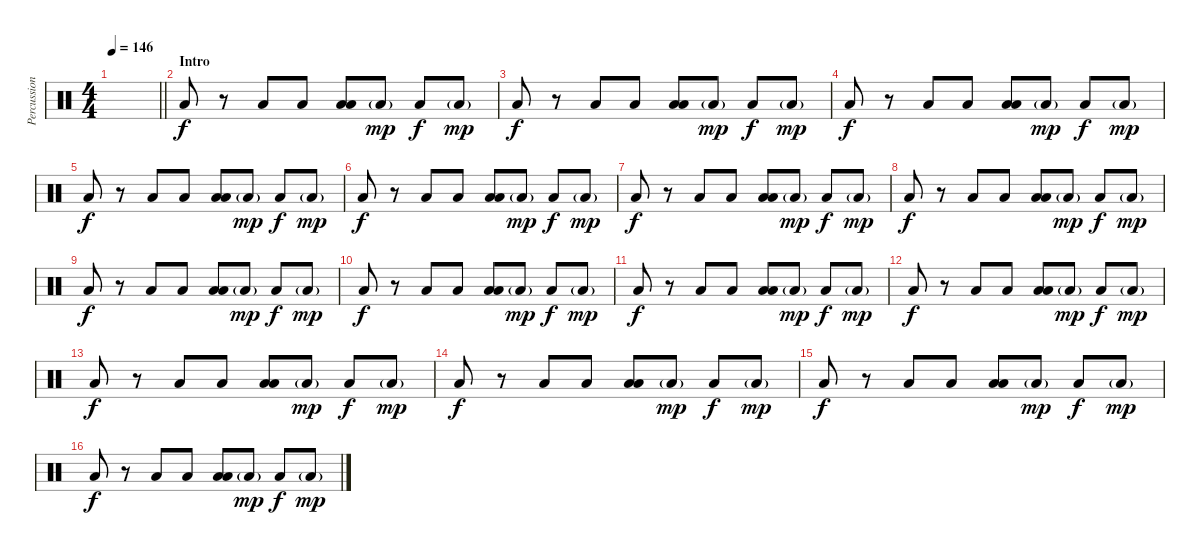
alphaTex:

\track ("Percussion" "Percussion") {instrument percussion}
\staff {score}
\articulation defaults
\ts (4 4)
\tempo 146
\clef neutral
\barLineRight lightlight
\ks c
|
\section ("" "Intro")
"Low Tom (hit)".8 r.8 "Low Tom (hit)".8 "Low Tom (hit)".8 ("Low Tom (hit)" "Low Floor Tom (hit)").8 "Low Floor Tom (hit)"{g}.8{dy mp} "Low Floor Tom (hit)".8{dy f} "Low Tom (hit)"{g}.8{dy mp} |
"Low Tom (hit)".8{dy f} r.8 "Low Tom (hit)".8 "Low Tom (hit)".8 ("Low Tom (hit)" "Low Floor Tom (hit)").8 "Low Floor Tom (hit)"{g}.8{dy mp} "Low Floor Tom (hit)".8{dy f} "Low Tom (hit)"{g}.8{dy mp} |
"Low Tom (hit)".8{dy f} r.8 "Low Tom (hit)".8 "Low Tom (hit)".8 ("Low Tom (hit)" "Low Floor Tom (hit)").8 "Low Floor Tom (hit)"{g}.8{dy mp} "Low Floor Tom (hit)".8{dy f} "Low Tom (hit)"{g}.8{dy mp} |
"Low Tom (hit)".8{dy f} r.8 "Low Tom (hit)".8 "Low Tom (hit)".8 ("Low Tom (hit)" "Low Floor Tom (hit)").8 "Low Floor Tom (hit)"{g}.8{dy mp} "Low Floor Tom (hit)".8{dy f} "Low Tom (hit)"{g}.8{dy mp} |
"Low Tom (hit)".8{dy f} r.8 "Low Tom (hit)".8 "Low Tom (hit)".8 ("Low Tom (hit)" "Low Floor Tom (hit)").8 "Low Floor Tom (hit)"{g}.8{dy mp} "Low Floor Tom (hit)".8{dy f} "Low Tom (hit)"{g}.8{dy mp} |
"Low Tom (hit)".8{dy f} r.8 "Low Tom (hit)".8 "Low Tom (hit)".8 ("Low Tom (hit)" "Low Floor Tom (hit)").8 "Low Floor Tom (hit)"{g}.8{dy mp} "Low Floor Tom (hit)".8{dy f} "Low Tom (hit)"{g}.8{dy mp} |
"Low Tom (hit)".8{dy f} r.8 "Low Tom (hit)".8 "Low Tom (hit)".8 ("Low Tom (hit)" "Low Floor Tom (hit)").8 "Low Floor Tom (hit)"{g}.8{dy mp} "Low Floor Tom (hit)".8{dy f} "Low Tom (hit)"{g}.8{dy mp} |
"Low Tom (hit)".8{dy f} r.8 "Low Tom (hit)".8 "Low Tom (hit)".8 ("Low Tom (hit)" "Low Floor Tom (hit)").8 "Low Floor Tom (hit)"{g}.8{dy mp} "Low Floor Tom (hit)".8{dy f} "Low Tom (hit)"{g}.8{dy mp} |
"Low Tom (hit)".8{dy f} r.8 "Low Tom (hit)".8 "Low Tom (hit)".8 ("Low Tom (hit)" "Low Floor Tom (hit)").8 "Low Floor Tom (hit)"{g}.8{dy mp} "Low Floor Tom (hit)".8{dy f} "Low Tom (hit)"{g}.8{dy mp} |
"Low Tom (hit)".8{dy f} r.8 "Low Tom (hit)".8 "Low Tom (hit)".8 ("Low Tom (hit)" "Low Floor Tom (hit)").8 "Low Floor Tom (hit)"{g}.8{dy mp} "Low Floor Tom (hit)".8{dy f} "Low Tom (hit)"{g}.8{dy mp} |
"Low Tom (hit)".8{dy f} r.8 "Low Tom (hit)".8 "Low Tom (hit)".8 ("Low Tom (hit)" "Low Floor Tom (hit)").8 "Low Floor Tom (hit)"{g}.8{dy mp} "Low Floor Tom (hit)".8{dy f} "Low Tom (hit)"{g}.8{dy mp} |
"Low Tom (hit)".8{dy f} r.8 "Low Tom (hit)".8 "Low Tom (hit)".8 ("Low Tom (hit)" "Low Floor Tom (hit)").8 "Low Floor Tom (hit)"{g}.8{dy mp} "Low Floor Tom (hit)".8{dy f} "Low Tom (hit)"{g}.8{dy mp} |
"Low Tom (hit)".8{dy f} r.8 "Low Tom (hit)".8 "Low Tom (hit)".8 ("Low Tom (hit)" "Low Floor Tom (hit)").8 "Low Floor Tom (hit)"{g}.8{dy mp} "Low Floor Tom (hit)".8{dy f} "Low Tom (hit)"{g}.8{dy mp} |
"Low Tom (hit)".8{dy f} r.8 "Low Tom (hit)".8 "Low Tom (hit)".8 ("Low Tom (hit)" "Low Floor Tom (hit)").8 "Low Floor Tom (hit)"{g}.8{dy mp} "Low Floor Tom (hit)".8{dy f} "Low Tom (hit)"{g}.8{dy mp} |
"Low Tom (hit)".8{dy f} r.8 "Low Tom (hit)".8 "Low Tom (hit)".8 ("Low Tom (hit)" "Low Floor Tom (hit)").8 "Low Floor Tom (hit)"{g}.8{dy mp} "Low Floor Tom (hit)".8{dy f} "Low Tom (hit)"{g}.8{dy mp}
